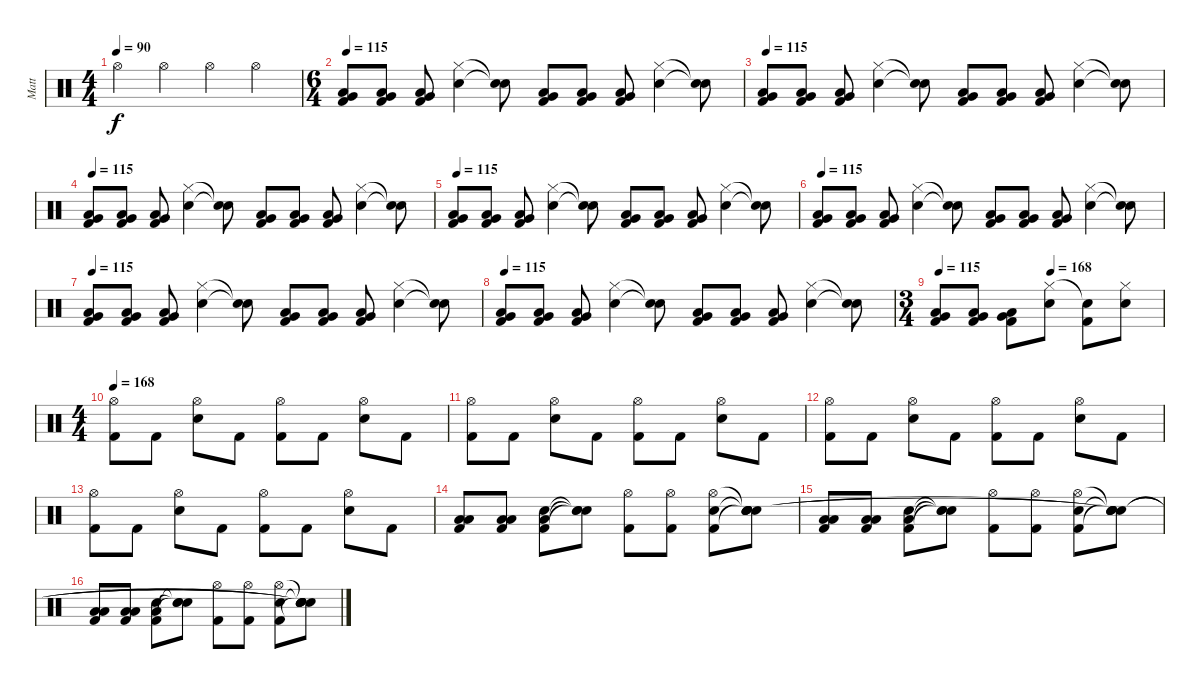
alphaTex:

\track ("Matt" "Matt") {instrument percussion}
\staff {score}
\articulation defaults
\ts (4 4)
\tempo 90
\clef neutral
\ks c "Hi-Hat (open)".4{dy f} "Hi-Hat (open)".4 "Hi-Hat (open)".4 "Hi-Hat (open)".4
|
\ts (6 4)
\tempo 115
("Low Floor Tom (hit)" "Very Low Tom (hit)" "Kick (hit) 2").8 ("Low Floor Tom (hit)" "Very Low Tom (hit)" "Kick (hit) 2").8 ("Low Floor Tom (hit)" "Very Low Tom (hit)" "Kick (hit) 2").8 ("Hi-Hat (closed)" "Electric Snare (hit)").4 ("Snare (hit)"{t} "Snare (hit)"{t}).8 ("Low Floor Tom (hit)" "Very Low Tom (hit)" "Kick (hit) 2").8 ("Low Floor Tom (hit)" "Very Low Tom (hit)" "Kick (hit) 2").8 ("Low Floor Tom (hit)" "Very Low Tom (hit)" "Kick (hit) 2").8 ("Hi-Hat (closed)" "Electric Snare (hit)").4 ("Snare (hit)"{t} "Snare (hit)"{t}).8 |
\tempo 115
("Low Floor Tom (hit)" "Very Low Tom (hit)" "Kick (hit) 2").8 ("Low Floor Tom (hit)" "Very Low Tom (hit)" "Kick (hit) 2").8 ("Low Floor Tom (hit)" "Very Low Tom (hit)" "Kick (hit) 2").8 ("Hi-Hat (closed)" "Electric Snare (hit)").4 ("Snare (hit)"{t} "Snare (hit)"{t}).8 ("Low Floor Tom (hit)" "Very Low Tom (hit)" "Kick (hit) 2").8 ("Low Floor Tom (hit)" "Very Low Tom (hit)" "Kick (hit) 2").8 ("Low Floor Tom (hit)" "Very Low Tom (hit)" "Kick (hit) 2").8 ("Hi-Hat (closed)" "Electric Snare (hit)").4 ("Snare (hit)"{t} "Snare (hit)"{t}).8 |
\tempo 115
("Low Floor Tom (hit)" "Very Low Tom (hit)" "Kick (hit) 2").8 ("Low Floor Tom (hit)" "Very Low Tom (hit)" "Kick (hit) 2").8 ("Low Floor Tom (hit)" "Very Low Tom (hit)" "Kick (hit) 2").8 ("Hi-Hat (closed)" "Electric Snare (hit)").4 ("Snare (hit)"{t} "Snare (hit)"{t}).8 ("Low Floor Tom (hit)" "Very Low Tom (hit)" "Kick (hit) 2").8 ("Low Floor Tom (hit)" "Very Low Tom (hit)" "Kick (hit) 2").8 ("Low Floor Tom (hit)" "Very Low Tom (hit)" "Kick (hit) 2").8 ("Hi-Hat (closed)" "Electric Snare (hit)").4 ("Snare (hit)"{t} "Snare (hit)"{t}).8 |
\tempo 115
("Low Floor Tom (hit)" "Very Low Tom (hit)" "Kick (hit) 2").8 ("Low Floor Tom (hit)" "Very Low Tom (hit)" "Kick (hit) 2").8 ("Low Floor Tom (hit)" "Very Low Tom (hit)" "Kick (hit) 2").8 ("Hi-Hat (closed)" "Electric Snare (hit)").4 ("Snare (hit)"{t} "Snare (hit)"{t}).8 ("Low Floor Tom (hit)" "Very Low Tom (hit)" "Kick (hit) 2").8 ("Low Floor Tom (hit)" "Very Low Tom (hit)" "Kick (hit) 2").8 ("Low Floor Tom (hit)" "Very Low Tom (hit)" "Kick (hit) 2").8 ("Hi-Hat (closed)" "Electric Snare (hit)").4 ("Snare (hit)"{t} "Snare (hit)"{t}).8 |
\tempo 115
("Low Floor Tom (hit)" "Very Low Tom (hit)" "Kick (hit) 2").8 ("Low Floor Tom (hit)" "Very Low Tom (hit)" "Kick (hit) 2").8 ("Low Floor Tom (hit)" "Very Low Tom (hit)" "Kick (hit) 2").8 ("Hi-Hat (closed)" "Electric Snare (hit)").4 ("Snare (hit)"{t} "Snare (hit)"{t}).8 ("Low Floor Tom (hit)" "Very Low Tom (hit)" "Kick (hit) 2").8 ("Low Floor Tom (hit)" "Very Low Tom (hit)" "Kick (hit) 2").8 ("Low Floor Tom (hit)" "Very Low Tom (hit)" "Kick (hit) 2").8 ("Hi-Hat (closed)" "Electric Snare (hit)").4 ("Snare (hit)"{t} "Snare (hit)"{t}).8 |
\tempo 115
("Low Floor Tom (hit)" "Very Low Tom (hit)" "Kick (hit) 2").8 ("Low Floor Tom (hit)" "Very Low Tom (hit)" "Kick (hit) 2").8 ("Low Floor Tom (hit)" "Very Low Tom (hit)" "Kick (hit) 2").8 ("Hi-Hat (closed)" "Electric Snare (hit)").4 ("Snare (hit)"{t} "Snare (hit)"{t}).8 ("Low Floor Tom (hit)" "Very Low Tom (hit)" "Kick (hit) 2").8 ("Low Floor Tom (hit)" "Very Low Tom (hit)" "Kick (hit) 2").8 ("Low Floor Tom (hit)" "Very Low Tom (hit)" "Kick (hit) 2").8 ("Hi-Hat (closed)" "Electric Snare (hit)").4 ("Snare (hit)"{t} "Snare (hit)"{t}).8 |
\tempo 115
("Low Floor Tom (hit)" "Very Low Tom (hit)" "Kick (hit) 2").8 ("Low Floor Tom (hit)" "Very Low Tom (hit)" "Kick (hit) 2").8 ("Low Floor Tom (hit)" "Very Low Tom (hit)" "Kick (hit) 2").8 ("Hi-Hat (closed)" "Electric Snare (hit)").4 ("Snare (hit)"{t} "Snare (hit)"{t}).8 ("Low Floor Tom (hit)" "Very Low Tom (hit)" "Kick (hit) 2").8 ("Low Floor Tom (hit)" "Very Low Tom (hit)" "Kick (hit) 2").8 ("Low Floor Tom (hit)" "Very Low Tom (hit)" "Kick (hit) 2").8 ("Hi-Hat (closed)" "Electric Snare (hit)").4 ("Snare (hit)"{t} "Snare (hit)"{t}).8 |
\ts (3 4)
\tempo 115
\tempo (168 0.5)
("Low Floor Tom (hit)" "Very Low Tom (hit)" "Kick (hit) 2").8 ("Low Floor Tom (hit)" "Very Low Tom (hit)" "Kick (hit) 2").8 ("Low Floor Tom (hit)" "Very Low Tom (hit)" "Kick (hit) 2").8 ("Hi-Hat (closed)" "Electric Snare (hit)").8 ("Snare (hit)"{t} "Kick (hit) 2").8 ("Hi-Hat (closed)" "Electric Snare (hit)").8 |
\ts (4 4)
\tempo 168
("Hi-Hat (open)" "Kick (hit) 2").8 "Kick (hit) 2".8 ("Hi-Hat (open)" "Electric Snare (hit)").8 "Kick (hit) 2".8 ("Hi-Hat (open)" "Kick (hit) 2").8 "Kick (hit) 2".8 ("Hi-Hat (open)" "Electric Snare (hit)").8 "Kick (hit) 2".8 |
("Hi-Hat (open)" "Kick (hit) 2").8 "Kick (hit) 2".8 ("Hi-Hat (open)" "Electric Snare (hit)").8 "Kick (hit) 2".8 ("Hi-Hat (open)" "Kick (hit) 2").8 "Kick (hit) 2".8 ("Hi-Hat (open)" "Electric Snare (hit)").8 "Kick (hit) 2".8 |
("Hi-Hat (open)" "Kick (hit) 2").8 "Kick (hit) 2".8 ("Hi-Hat (open)" "Electric Snare (hit)").8 "Kick (hit) 2".8 ("Hi-Hat (open)" "Kick (hit) 2").8 "Kick (hit) 2".8 ("Hi-Hat (open)" "Electric Snare (hit)").8 "Kick (hit) 2".8 |
("Hi-Hat (open)" "Kick (hit) 2").8 "Kick (hit) 2".8 ("Hi-Hat (open)" "Electric Snare (hit)").8 "Kick (hit) 2".8 ("Hi-Hat (open)" "Kick (hit) 2").8 "Kick (hit) 2".8 ("Hi-Hat (open)" "Electric Snare (hit)").8 "Kick (hit) 2".8 |
("Low Tom (hit)" "Kick (hit) 2" "Low Floor Tom (hit)").8 ("Low Tom (hit)" "Kick (hit) 2" "Low Floor Tom (hit)").8 ("Electric Snare (hit)" "Kick (hit) 2" "Low Floor Tom (hit)").8 ("Snare (hit)"{t} "Snare (hit)"{t} "Snare (hit)"{t}).8 ("Hi-Hat (open)" "Kick (hit) 2").8 ("Hi-Hat (open)" "Kick (hit) 2").8 ("Hi-Hat (open)" "Electric Snare (hit)" "Kick (hit) 2").8 ("Snare (hit)"{t} "Snare (hit)"{t} "Snare (hit)"{t} "Snare (hit)" "Snare (hit)").8 |
("Low Tom (hit)" "Kick (hit) 2" "Low Floor Tom (hit)").8 ("Low Tom (hit)" "Kick (hit) 2" "Low Floor Tom (hit)").8 ("Electric Snare (hit)" "Kick (hit) 2" "Low Floor Tom (hit)").8 ("Snare (hit)"{t} "Snare (hit)"{t} "Snare (hit)"{t}).8 ("Hi-Hat (open)" "Kick (hit) 2").8 ("Hi-Hat (open)" "Kick (hit) 2").8 ("Hi-Hat (open)" "Electric Snare (hit)" "Kick (hit) 2").8 ("Snare (hit)"{t} "Snare (hit)"{t} "Snare (hit)"{t} "Snare (hit)"{t} "Snare (hit)"{t}).8 |
("Low Tom (hit)" "Kick (hit) 2" "Low Floor Tom (hit)").8 ("Low Tom (hit)" "Kick (hit) 2" "Low Floor Tom (hit)").8 ("Electric Snare (hit)" "Kick (hit) 2" "Low Floor Tom (hit)").8 ("Snare (hit)"{t} "Snare (hit)"{t} "Snare (hit)"{t}).8 ("Hi-Hat (open)" "Kick (hit) 2").8 ("Hi-Hat (open)" "Kick (hit) 2").8 ("Hi-Hat (open)" "Electric Snare (hit)" "Kick (hit) 2").8 ("Snare (hit)"{t} "Snare (hit)"{t} "Snare (hit)"{t} "Snare (hit)"{t} "Snare (hit)"{t}).8
